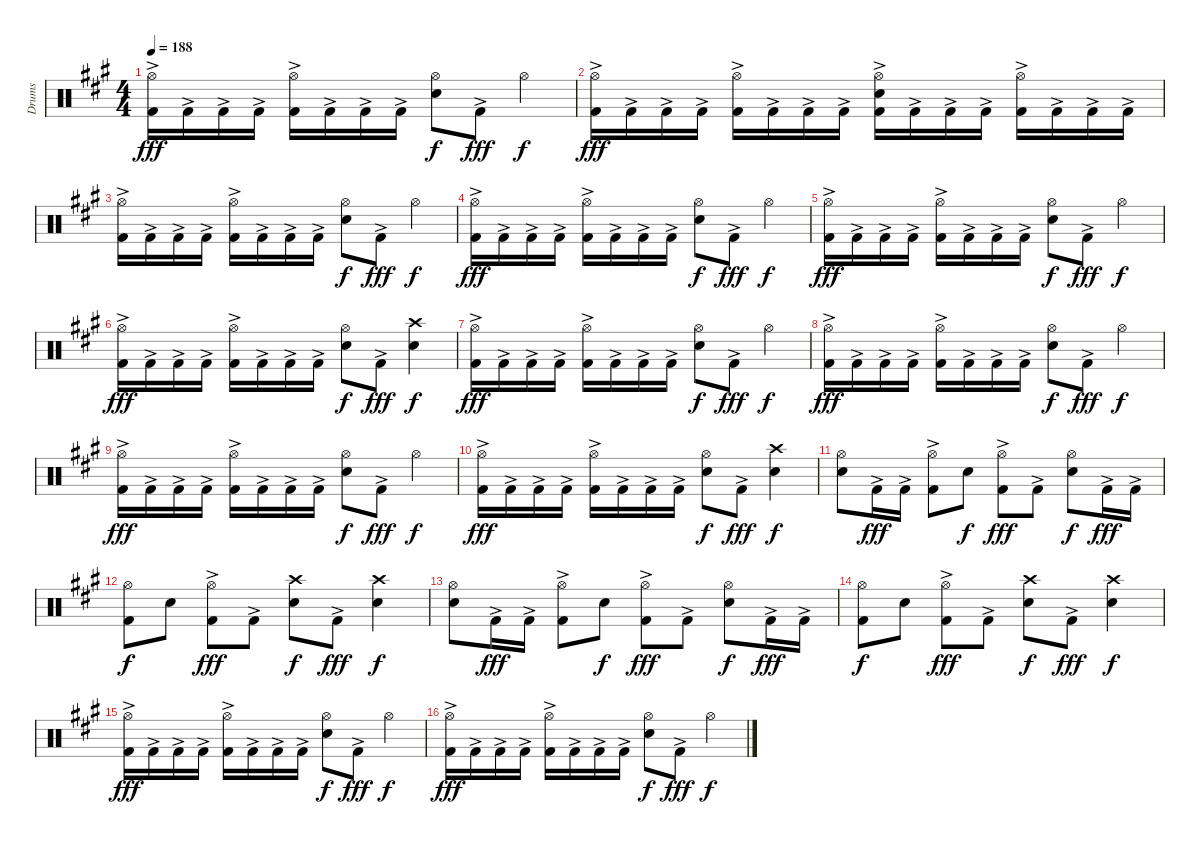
\track ("Drums" "Drums") {instrument percussion}
\staff {score}
\articulation defaults
\ts (4 4)
\tempo 188
\clef neutral
\ks f#minor
("Hi-Hat (open)" "Kick (hit) 2"{ac}).16{dy fff} "Kick (hit) 2"{ac}.16 "Kick (hit) 2"{ac}.16 "Kick (hit) 2"{ac}.16 ("Hi-Hat (open)" "Kick (hit) 2"{ac}).16 "Kick (hit) 2"{ac}.16 "Kick (hit) 2"{ac}.16 "Kick (hit) 2"{ac}.16 ("Hi-Hat (open)" "Snare (hit) 2").8{dy f} "Kick (hit) 2"{ac}.8{dy fff} "Hi-Hat (open)".4{dy f} |
("Hi-Hat (open)" "Kick (hit) 2"{ac}).16{dy fff} "Kick (hit) 2"{ac}.16 "Kick (hit) 2"{ac}.16 "Kick (hit) 2"{ac}.16 ("Hi-Hat (open)" "Kick (hit) 2"{ac}).16 "Kick (hit) 2"{ac}.16 "Kick (hit) 2"{ac}.16 "Kick (hit) 2"{ac}.16 ("Hi-Hat (open)" "Snare (hit) 2" "Kick (hit) 2"{ac}).16 "Kick (hit) 2"{ac}.16 "Kick (hit) 2"{ac}.16 "Kick (hit) 2"{ac}.16 ("Hi-Hat (open)" "Kick (hit) 2"{ac}).16 "Kick (hit) 2"{ac}.16 "Kick (hit) 2"{ac}.16 "Kick (hit) 2"{ac}.16 |
("Hi-Hat (open)" "Kick (hit) 2"{ac}).16 "Kick (hit) 2"{ac}.16 "Kick (hit) 2"{ac}.16 "Kick (hit) 2"{ac}.16 ("Hi-Hat (open)" "Kick (hit) 2"{ac}).16 "Kick (hit) 2"{ac}.16 "Kick (hit) 2"{ac}.16 "Kick (hit) 2"{ac}.16 ("Hi-Hat (open)" "Snare (hit) 2").8{dy f} "Kick (hit) 2"{ac}.8{dy fff} "Hi-Hat (open)".4{dy f} |
("Hi-Hat (open)" "Kick (hit) 2"{ac}).16{dy fff} "Kick (hit) 2"{ac}.16 "Kick (hit) 2"{ac}.16 "Kick (hit) 2"{ac}.16 ("Hi-Hat (open)" "Kick (hit) 2"{ac}).16 "Kick (hit) 2"{ac}.16 "Kick (hit) 2"{ac}.16 "Kick (hit) 2"{ac}.16 ("Hi-Hat (open)" "Snare (hit) 2").8{dy f} "Kick (hit) 2"{ac}.8{dy fff} "Hi-Hat (open)".4{dy f} |
("Hi-Hat (open)" "Kick (hit) 2"{ac}).16{dy fff} "Kick (hit) 2"{ac}.16 "Kick (hit) 2"{ac}.16 "Kick (hit) 2"{ac}.16 ("Hi-Hat (open)" "Kick (hit) 2"{ac}).16 "Kick (hit) 2"{ac}.16 "Kick (hit) 2"{ac}.16 "Kick (hit) 2"{ac}.16 ("Hi-Hat (open)" "Snare (hit) 2").8{dy f} "Kick (hit) 2"{ac}.8{dy fff} "Hi-Hat (open)".4{dy f} |
("Hi-Hat (open)" "Kick (hit) 2"{ac}).16{dy fff} "Kick (hit) 2"{ac}.16 "Kick (hit) 2"{ac}.16 "Kick (hit) 2"{ac}.16 ("Hi-Hat (open)" "Kick (hit) 2"{ac}).16 "Kick (hit) 2"{ac}.16 "Kick (hit) 2"{ac}.16 "Kick (hit) 2"{ac}.16 ("Hi-Hat (open)" "Snare (hit) 2").8{dy f} "Kick (hit) 2"{ac}.8{dy fff} ("Crash high (hit)" "Snare (hit) 2").4{dy f} |
("Hi-Hat (open)" "Kick (hit) 2"{ac}).16{dy fff} "Kick (hit) 2"{ac}.16 "Kick (hit) 2"{ac}.16 "Kick (hit) 2"{ac}.16 ("Hi-Hat (open)" "Kick (hit) 2"{ac}).16 "Kick (hit) 2"{ac}.16 "Kick (hit) 2"{ac}.16 "Kick (hit) 2"{ac}.16 ("Hi-Hat (open)" "Snare (hit) 2").8{dy f} "Kick (hit) 2"{ac}.8{dy fff} "Hi-Hat (open)".4{dy f} |
("Hi-Hat (open)" "Kick (hit) 2"{ac}).16{dy fff} "Kick (hit) 2"{ac}.16 "Kick (hit) 2"{ac}.16 "Kick (hit) 2"{ac}.16 ("Hi-Hat (open)" "Kick (hit) 2"{ac}).16 "Kick (hit) 2"{ac}.16 "Kick (hit) 2"{ac}.16 "Kick (hit) 2"{ac}.16 ("Hi-Hat (open)" "Snare (hit) 2").8{dy f} "Kick (hit) 2"{ac}.8{dy fff} "Hi-Hat (open)".4{dy f} |
("Hi-Hat (open)" "Kick (hit) 2"{ac}).16{dy fff} "Kick (hit) 2"{ac}.16 "Kick (hit) 2"{ac}.16 "Kick (hit) 2"{ac}.16 ("Hi-Hat (open)" "Kick (hit) 2"{ac}).16 "Kick (hit) 2"{ac}.16 "Kick (hit) 2"{ac}.16 "Kick (hit) 2"{ac}.16 ("Hi-Hat (open)" "Snare (hit) 2").8{dy f} "Kick (hit) 2"{ac}.8{dy fff} "Hi-Hat (open)".4{dy f} |
("Hi-Hat (open)" "Kick (hit) 2"{ac}).16{dy fff} "Kick (hit) 2"{ac}.16 "Kick (hit) 2"{ac}.16 "Kick (hit) 2"{ac}.16 ("Hi-Hat (open)" "Kick (hit) 2"{ac}).16 "Kick (hit) 2"{ac}.16 "Kick (hit) 2"{ac}.16 "Kick (hit) 2"{ac}.16 ("Hi-Hat (open)" "Snare (hit) 2").8{dy f} "Kick (hit) 2"{ac}.8{dy fff} ("Crash high (hit)" "Snare (hit) 2").4{dy f} |
("Hi-Hat (open)" "Snare (hit) 2").8 "Kick (hit) 2"{ac}.16{dy fff} "Kick (hit) 2"{ac}.16 ("Hi-Hat (open)" "Kick (hit) 2"{ac}).8 "Snare (hit) 2".8{dy f} ("Hi-Hat (open)" "Kick (hit) 2"{ac}).8{dy fff} "Kick (hit) 2"{ac}.8 ("Hi-Hat (open)" "Snare (hit) 2").8{dy f} "Kick (hit) 2"{ac}.16{dy fff} "Kick (hit) 2"{ac}.16 |
("Hi-Hat (open)" "Kick (hit) 2").8{dy f} "Snare (hit) 2".8 ("Hi-Hat (open)" "Kick (hit) 2"{ac}).8{dy fff} "Kick (hit) 2"{ac}.8 ("Crash high (hit)" "Snare (hit) 2").8{dy f} "Kick (hit) 2"{ac}.8{dy fff} ("Crash high (hit)" "Snare (hit) 2").4{dy f} |
("Hi-Hat (open)" "Snare (hit) 2").8 "Kick (hit) 2"{ac}.16{dy fff} "Kick (hit) 2"{ac}.16 ("Hi-Hat (open)" "Kick (hit) 2"{ac}).8 "Snare (hit) 2".8{dy f} ("Hi-Hat (open)" "Kick (hit) 2"{ac}).8{dy fff} "Kick (hit) 2"{ac}.8 ("Hi-Hat (open)" "Snare (hit) 2").8{dy f} "Kick (hit) 2"{ac}.16{dy fff} "Kick (hit) 2"{ac}.16 |
("Hi-Hat (open)" "Kick (hit) 2").8{dy f} "Snare (hit) 2".8 ("Hi-Hat (open)" "Kick (hit) 2"{ac}).8{dy fff} "Kick (hit) 2"{ac}.8 ("Crash high (hit)" "Snare (hit) 2").8{dy f} "Kick (hit) 2"{ac}.8{dy fff} ("Crash high (hit)" "Snare (hit) 2").4{dy f} |
("Hi-Hat (open)" "Kick (hit) 2"{ac}).16{dy fff} "Kick (hit) 2"{ac}.16 "Kick (hit) 2"{ac}.16 "Kick (hit) 2"{ac}.16 ("Hi-Hat (open)" "Kick (hit) 2"{ac}).16 "Kick (hit) 2"{ac}.16 "Kick (hit) 2"{ac}.16 "Kick (hit) 2"{ac}.16 ("Hi-Hat (open)" "Snare (hit) 2").8{dy f} "Kick (hit) 2"{ac}.8{dy fff} "Hi-Hat (open)".4{dy f} |
("Hi-Hat (open)" "Kick (hit) 2"{ac}).16{dy fff} "Kick (hit) 2"{ac}.16 "Kick (hit) 2"{ac}.16 "Kick (hit) 2"{ac}.16 ("Hi-Hat (open)" "Kick (hit) 2"{ac}).16 "Kick (hit) 2"{ac}.16 "Kick (hit) 2"{ac}.16 "Kick (hit) 2"{ac}.16 ("Hi-Hat (open)" "Snare (hit) 2").8{dy f} "Kick (hit) 2"{ac}.8{dy fff} "Hi-Hat (open)".4{dy f}
